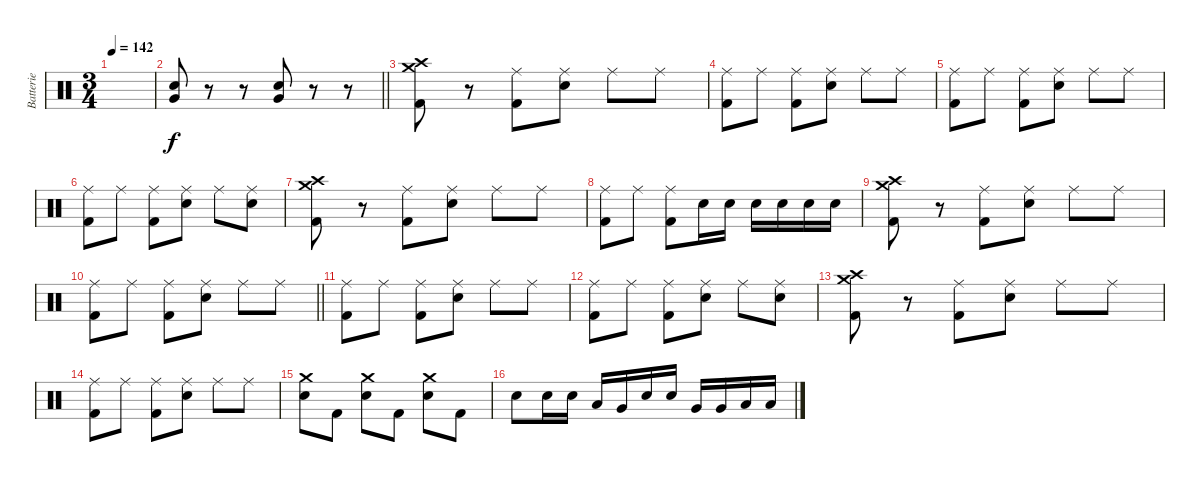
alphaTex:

\track ("Batterie" "Batterie") {instrument percussion}
\staff {score}
\articulation defaults
\ts (3 4)
\tempo 142
\clef neutral
\ks c
|
\barLineRight lightlight
("Electric Snare (hit)" "Very Low Tom (hit)").8 r.8 r.8 ("Electric Snare (hit)" "Very Low Tom (hit)").8 r.8 r.8 |
("Crash medium (hit)" "Crash high (hit)" "Kick (hit) 2").8 r.8 ("Ride (middle)" "Kick (hit) 2").8 ("Ride (middle)" "Electric Snare (hit)").8 "Ride (middle)".8 "Ride (middle)".8 |
("Ride (middle)" "Kick (hit) 2").8 "Ride (middle)".8 ("Ride (middle)" "Kick (hit) 2").8 ("Ride (middle)" "Electric Snare (hit)").8 "Ride (middle)".8 "Ride (middle)".8 |
("Ride (middle)" "Kick (hit) 2").8 "Ride (middle)".8 ("Ride (middle)" "Kick (hit) 2").8 ("Ride (middle)" "Electric Snare (hit)").8 "Ride (middle)".8 "Ride (middle)".8 |
("Ride (middle)" "Kick (hit) 2").8 "Ride (middle)".8 ("Ride (middle)" "Kick (hit) 2").8 ("Ride (middle)" "Electric Snare (hit)").8 "Ride (middle)".8 ("Ride (middle)" "Electric Snare (hit)").8 |
("Crash medium (hit)" "Crash high (hit)" "Kick (hit) 2").8 r.8 ("Ride (middle)" "Kick (hit) 2").8 ("Ride (middle)" "Electric Snare (hit)").8 "Ride (middle)".8 "Ride (middle)".8 |
("Ride (middle)" "Kick (hit) 2").8 "Ride (middle)".8 ("Ride (middle)" "Kick (hit) 2").8 "Electric Snare (hit)".16 "Electric Snare (hit)".16 "Electric Snare (hit)".16 "Electric Snare (hit)".16 "Electric Snare (hit)".16 "Electric Snare (hit)".16 |
("Crash medium (hit)" "Crash high (hit)" "Kick (hit) 2").8 r.8 ("Ride (middle)" "Kick (hit) 2").8 ("Ride (middle)" "Electric Snare (hit)").8 "Ride (middle)".8 "Ride (middle)".8 |
\barLineRight lightlight
("Ride (middle)" "Kick (hit) 2").8 "Ride (middle)".8 ("Ride (middle)" "Kick (hit) 2").8 ("Ride (middle)" "Electric Snare (hit)").8 "Ride (middle)".8 "Ride (middle)".8 |
("Ride (middle)" "Kick (hit) 2").8 "Ride (middle)".8 ("Ride (middle)" "Kick (hit) 2").8 ("Ride (middle)" "Electric Snare (hit)").8 "Ride (middle)".8 "Ride (middle)".8 |
("Ride (middle)" "Kick (hit) 2").8 "Ride (middle)".8 ("Ride (middle)" "Kick (hit) 2").8 ("Ride (middle)" "Electric Snare (hit)").8 "Ride (middle)".8 ("Ride (middle)" "Electric Snare (hit)").8 |
("Crash medium (hit)" "Crash high (hit)" "Kick (hit) 2").8 r.8 ("Ride (middle)" "Kick (hit) 2").8 ("Ride (middle)" "Electric Snare (hit)").8 "Ride (middle)".8 "Ride (middle)".8 |
("Ride (middle)" "Kick (hit) 2").8 "Ride (middle)".8 ("Ride (middle)" "Kick (hit) 2").8 ("Ride (middle)" "Electric Snare (hit)").8 "Ride (middle)".8 "Ride (middle)".8 |
("Crash medium (hit)" "Electric Snare (hit)").8 "Kick (hit) 2".8 ("Crash medium (hit)" "Electric Snare (hit)").8 "Kick (hit) 2".8 ("Crash medium (hit)" "Electric Snare (hit)").8 "Kick (hit) 2".8 |
"Electric Snare (hit)".8 "Electric Snare (hit)".16 "Electric Snare (hit)".16 "Low Tom (hit)".16 "Very Low Tom (hit)".16 "Electric Snare (hit)".16 "Electric Snare (hit)".16 "Very Low Tom (hit)".16 "Very Low Tom (hit)".16 "Low Tom (hit)".16 "Low Tom (hit)".16
